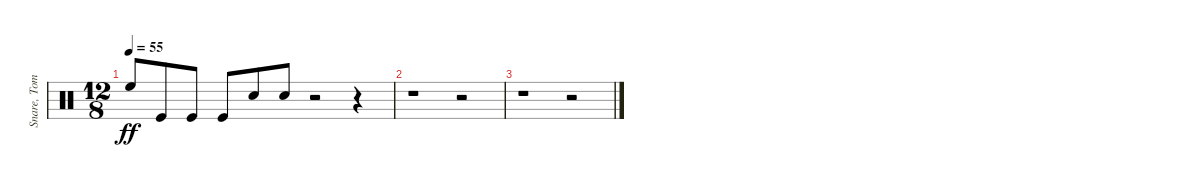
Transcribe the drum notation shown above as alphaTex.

\track ("Snare, Toms, Bass drum" "Snare, Tom") {instrument percussion}
\staff {score}
\articulation defaults
\ts (12 8)
\tempo 55
\clef neutral
\ks c "High Floor Tom (hit)".8{dy ff} "Kick (hit)".8 "Kick (hit)".8 "Kick (hit)".8 "Snare (hit) 2".8 "Snare (hit) 2".8
r.2 r.4 |
r.1 r.2 |
r.1 r.2
